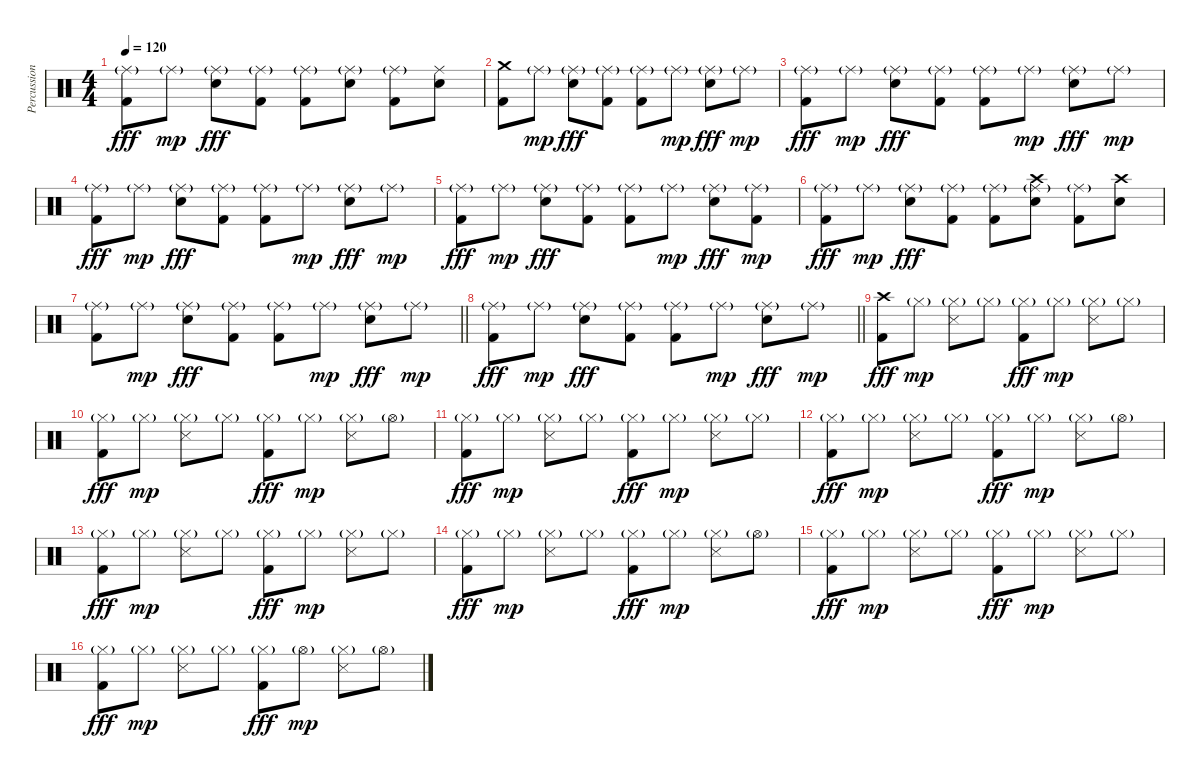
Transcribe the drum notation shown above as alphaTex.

\track ("Percussion" "Percussion") {instrument percussion}
\staff {score}
\articulation defaults
\ts (4 4)
\tempo 120
\clef neutral
\ks c
("Ride (middle)"{g} "Kick (hit) 2").8{dy fff} "Ride (middle)"{g}.8{dy mp} ("Ride (middle)"{g} "Electric Snare (hit)").8{dy fff} ("Ride (middle)"{g} "Kick (hit) 2").8 ("Ride (middle)"{g} "Kick (hit) 2").8 ("Ride (middle)"{g} "Electric Snare (hit)").8 ("Ride (middle)"{g} "Kick (hit) 2").8 ("Ride (middle)" "Electric Snare (hit)").8 |
("Crash medium (hit)" "Kick (hit) 2").8 "Ride (middle)"{g}.8{dy mp} ("Ride (middle)"{g} "Electric Snare (hit)").8{dy fff} ("Ride (middle)"{g} "Kick (hit) 2").8 ("Ride (middle)"{g} "Kick (hit) 2").8 "Ride (middle)"{g}.8{dy mp} ("Ride (middle)"{g} "Electric Snare (hit)").8{dy fff} "Ride (middle)"{g}.8{dy mp} |
("Ride (middle)"{g} "Kick (hit) 2").8{dy fff} "Ride (middle)"{g}.8{dy mp} ("Ride (middle)"{g} "Electric Snare (hit)").8{dy fff} ("Ride (middle)"{g} "Kick (hit) 2").8 ("Ride (middle)"{g} "Kick (hit) 2").8 "Ride (middle)"{g}.8{dy mp} ("Ride (middle)"{g} "Electric Snare (hit)").8{dy fff} "Ride (middle)"{g}.8{dy mp} |
("Ride (middle)"{g} "Kick (hit) 2").8{dy fff} "Ride (middle)"{g}.8{dy mp} ("Ride (middle)"{g} "Electric Snare (hit)").8{dy fff} ("Ride (middle)"{g} "Kick (hit) 2").8 ("Ride (middle)"{g} "Kick (hit) 2").8 "Ride (middle)"{g}.8{dy mp} ("Ride (middle)"{g} "Electric Snare (hit)").8{dy fff} "Ride (middle)"{g}.8{dy mp} |
("Ride (middle)"{g} "Kick (hit) 2").8{dy fff} "Ride (middle)"{g}.8{dy mp} ("Ride (middle)"{g} "Electric Snare (hit)").8{dy fff} ("Ride (middle)"{g} "Kick (hit) 2").8 ("Ride (middle)"{g} "Kick (hit) 2").8 "Ride (middle)"{g}.8{dy mp} ("Ride (middle)"{g} "Electric Snare (hit)").8{dy fff} ("Ride (middle)"{g} "Kick (hit) 2").8{dy mp} |
("Ride (middle)"{g} "Kick (hit) 2").8{dy fff} "Ride (middle)"{g}.8{dy mp} ("Ride (middle)"{g} "Electric Snare (hit)").8{dy fff} ("Ride (middle)"{g} "Kick (hit) 2").8 ("Ride (middle)"{g} "Kick (hit) 2").8 ("Crash high (hit)" "Ride (middle)"{g} "Electric Snare (hit)").8 ("Ride (middle)"{g} "Kick (hit) 2").8 ("Crash high (hit)" "Electric Snare (hit)").8 |
\barLineRight lightlight
("Ride (middle)"{g} "Kick (hit) 2").8 "Ride (middle)"{g}.8{dy mp} ("Ride (middle)"{g} "Electric Snare (hit)").8{dy fff} ("Ride (middle)"{g} "Kick (hit) 2").8 ("Ride (middle)"{g} "Kick (hit) 2").8 "Ride (middle)"{g}.8{dy mp} ("Ride (middle)"{g} "Electric Snare (hit)").8{dy fff} "Ride (middle)"{g}.8{dy mp} |
\barLineRight lightlight
("Ride (middle)"{g} "Kick (hit) 2").8{dy fff} "Ride (middle)"{g}.8{dy mp} ("Ride (middle)"{g} "Electric Snare (hit)").8{dy fff} ("Ride (middle)"{g} "Kick (hit) 2").8 ("Ride (middle)"{g} "Kick (hit) 2").8 "Ride (middle)"{g}.8{dy mp} ("Ride (middle)"{g} "Electric Snare (hit)").8{dy fff} "Ride (middle)"{g}.8{dy mp} |
("Crash high (hit)" "Kick (hit) 2").8{dy fff} "Hi-Hat (closed)"{g}.8{dy mp} ("Hi-Hat (closed)"{g} "Snare (side stick) 3").8 "Hi-Hat (closed)"{g}.8 ("Hi-Hat (closed)"{g} "Kick (hit) 2").8{dy fff} "Hi-Hat (closed)"{g}.8{dy mp} ("Hi-Hat (closed)"{g} "Snare (side stick) 3").8 "Hi-Hat (closed)"{g}.8 |
("Hi-Hat (closed)"{g} "Kick (hit) 2").8{dy fff} "Hi-Hat (closed)"{g}.8{dy mp} ("Hi-Hat (closed)"{g} "Snare (side stick) 3").8 "Hi-Hat (closed)"{g}.8 ("Hi-Hat (closed)"{g} "Kick (hit) 2").8{dy fff} "Hi-Hat (closed)"{g}.8{dy mp} ("Hi-Hat (closed)"{g} "Snare (side stick) 3").8 "Hi-Hat (open)"{g}.8 |
("Hi-Hat (closed)"{g} "Kick (hit) 2").8{dy fff} "Hi-Hat (closed)"{g}.8{dy mp} ("Hi-Hat (closed)"{g} "Snare (side stick) 3").8 "Hi-Hat (closed)"{g}.8 ("Hi-Hat (closed)"{g} "Kick (hit) 2").8{dy fff} "Hi-Hat (closed)"{g}.8{dy mp} ("Hi-Hat (closed)"{g} "Snare (side stick) 3").8 "Hi-Hat (closed)"{g}.8 |
("Hi-Hat (closed)"{g} "Kick (hit) 2").8{dy fff} "Hi-Hat (closed)"{g}.8{dy mp} ("Hi-Hat (closed)"{g} "Snare (side stick) 3").8 "Hi-Hat (closed)"{g}.8 ("Hi-Hat (closed)"{g} "Kick (hit) 2").8{dy fff} "Hi-Hat (closed)"{g}.8{dy mp} ("Hi-Hat (closed)"{g} "Snare (side stick) 3").8 "Hi-Hat (open)"{g}.8 |
("Hi-Hat (closed)"{g} "Kick (hit) 2").8{dy fff} "Hi-Hat (closed)"{g}.8{dy mp} ("Hi-Hat (closed)"{g} "Snare (side stick) 3").8 "Hi-Hat (closed)"{g}.8 ("Hi-Hat (closed)"{g} "Kick (hit) 2").8{dy fff} "Hi-Hat (closed)"{g}.8{dy mp} ("Hi-Hat (closed)"{g} "Snare (side stick) 3").8 "Hi-Hat (closed)"{g}.8 |
("Hi-Hat (closed)"{g} "Kick (hit) 2").8{dy fff} "Hi-Hat (closed)"{g}.8{dy mp} ("Hi-Hat (closed)"{g} "Snare (side stick) 3").8 "Hi-Hat (closed)"{g}.8 ("Hi-Hat (closed)"{g} "Kick (hit) 2").8{dy fff} "Hi-Hat (closed)"{g}.8{dy mp} ("Hi-Hat (closed)"{g} "Snare (side stick) 3").8 "Hi-Hat (open)"{g}.8 |
("Hi-Hat (closed)"{g} "Kick (hit) 2").8{dy fff} "Hi-Hat (closed)"{g}.8{dy mp} ("Hi-Hat (closed)"{g} "Snare (side stick) 3").8 "Hi-Hat (closed)"{g}.8 ("Hi-Hat (closed)"{g} "Kick (hit) 2").8{dy fff} "Hi-Hat (closed)"{g}.8{dy mp} ("Hi-Hat (closed)"{g} "Snare (side stick) 3").8 "Hi-Hat (closed)"{g}.8 |
("Hi-Hat (closed)"{g} "Kick (hit) 2").8{dy fff} "Hi-Hat (closed)"{g}.8{dy mp} ("Hi-Hat (closed)"{g} "Snare (side stick) 3").8 "Hi-Hat (closed)"{g}.8 ("Hi-Hat (closed)"{g} "Kick (hit) 2").8{dy fff} "Hi-Hat (open)"{g}.8{dy mp} ("Hi-Hat (closed)"{g} "Snare (side stick) 3").8 "Hi-Hat (open)"{g}.8
